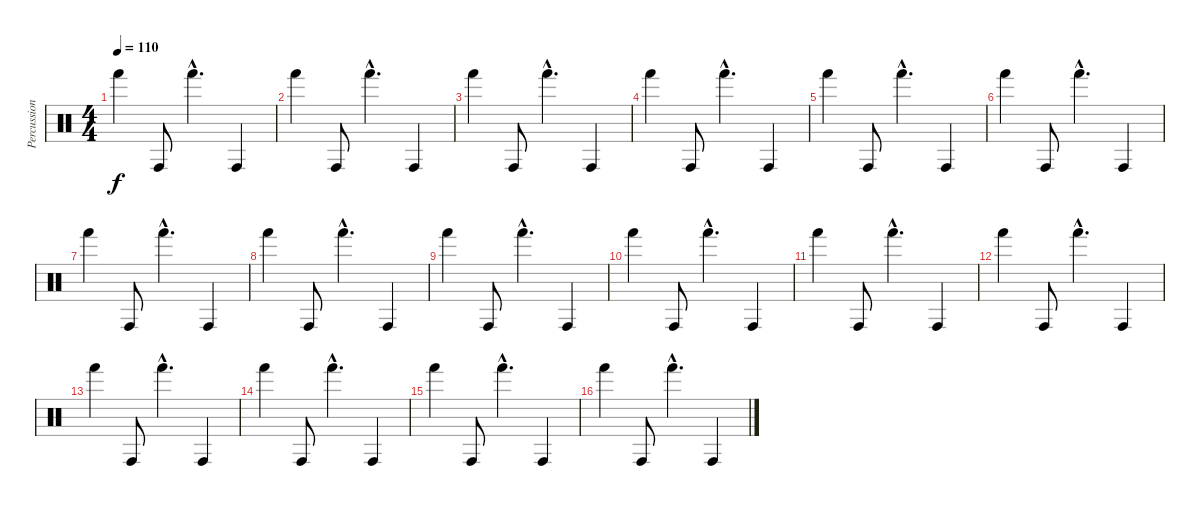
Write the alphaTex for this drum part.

\track ("Percussion" "Percussion") {instrument percussion}
\staff {score}
\articulation defaults
\ts (4 4)
\tempo 110
\clef neutral
\ks c "Hand (hit)".4{dy f} "Conga high (hit)".8 "Hand (hit)"{hac}.4{d} "Conga high (hit)".4
|
"Hand (hit)".4 "Conga high (hit)".8 "Hand (hit)"{hac}.4{d} "Conga high (hit)".4 |
"Hand (hit)".4 "Conga high (hit)".8 "Hand (hit)"{hac}.4{d} "Conga high (hit)".4 |
"Hand (hit)".4 "Conga high (hit)".8 "Hand (hit)"{hac}.4{d} "Conga high (hit)".4 |
"Hand (hit)".4 "Conga high (hit)".8 "Hand (hit)"{hac}.4{d} "Conga high (hit)".4 |
"Hand (hit)".4 "Conga high (hit)".8 "Hand (hit)"{hac}.4{d} "Conga high (hit)".4 |
"Hand (hit)".4 "Conga high (hit)".8 "Hand (hit)"{hac}.4{d} "Conga high (hit)".4 |
"Hand (hit)".4 "Conga high (hit)".8 "Hand (hit)"{hac}.4{d} "Conga high (hit)".4 |
"Hand (hit)".4 "Conga high (hit)".8 "Hand (hit)"{hac}.4{d} "Conga high (hit)".4 |
"Hand (hit)".4 "Conga high (hit)".8 "Hand (hit)"{hac}.4{d} "Conga high (hit)".4 |
"Hand (hit)".4 "Conga high (hit)".8 "Hand (hit)"{hac}.4{d} "Conga high (hit)".4 |
"Hand (hit)".4 "Conga high (hit)".8 "Hand (hit)"{hac}.4{d} "Conga high (hit)".4 |
"Hand (hit)".4 "Conga high (hit)".8 "Hand (hit)"{hac}.4{d} "Conga high (hit)".4 |
"Hand (hit)".4 "Conga high (hit)".8 "Hand (hit)"{hac}.4{d} "Conga high (hit)".4 |
"Hand (hit)".4 "Conga high (hit)".8 "Hand (hit)"{hac}.4{d} "Conga high (hit)".4 |
"Hand (hit)".4 "Conga high (hit)".8 "Hand (hit)"{hac}.4{d} "Conga high (hit)".4
